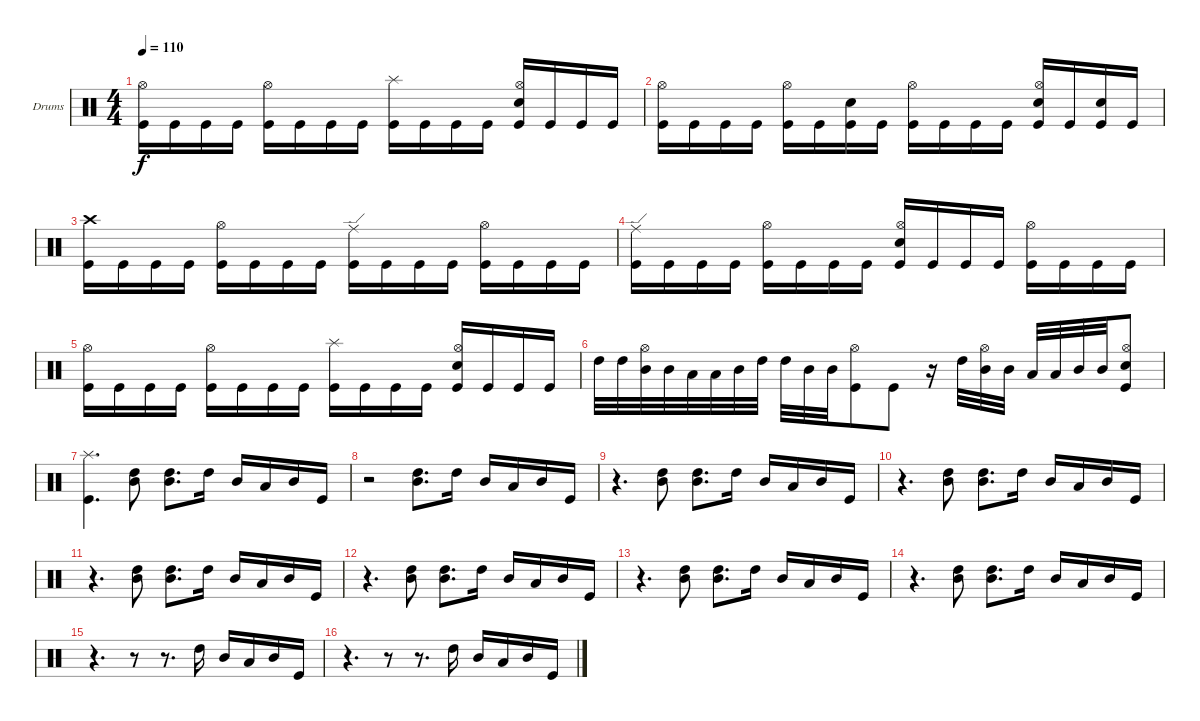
\bracketExtendMode groupsimilarinstruments
\firstSystemTrackNameOrientation horizontal
\otherSystemsTrackNameOrientation horizontal
\track ("Drumkit" "Drums") {instrument percussion}
\staff {score}
\articulation defaults
\ts (4 4)
\tempo 110
\clef neutral
\ks c
("Kick (hit)" "Hi-Hat (open)").16{dy f} "Kick (hit)".16 "Kick (hit)".16 "Kick (hit)".16 ("Kick (hit)" "Hi-Hat (open)").16 "Kick (hit)".16 "Kick (hit)".16 "Kick (hit)".16 ("Splash (hit)" "Kick (hit)").16 "Kick (hit)".16 "Kick (hit)".16 "Kick (hit)".16 ("Snare (hit) 2" "Kick (hit)" "Hi-Hat (open)").16 "Kick (hit)".16 "Kick (hit)".16 "Kick (hit)".16 |
("Kick (hit)" "Hi-Hat (open)").16 "Kick (hit)".16 "Kick (hit)".16 "Kick (hit)".16 ("Kick (hit)" "Hi-Hat (open)").16 "Kick (hit)".16 ("Snare (hit) 2" "Kick (hit)").16 "Kick (hit)".16 ("Kick (hit)" "Hi-Hat (open)").16 "Kick (hit)".16 "Kick (hit)".16 "Kick (hit)".16 ("Snare (hit) 2" "Kick (hit)" "Hi-Hat (open)").16 "Kick (hit)".16 ("Snare (hit) 2" "Kick (hit)").16 "Kick (hit)".16 |
("Crash high (hit)" "Kick (hit)").16 "Kick (hit)".16 "Kick (hit)".16 "Kick (hit)".16 ("Kick (hit)" "Hi-Hat (open)").16 "Kick (hit)".16 "Kick (hit)".16 "Kick (hit)".16 ("Ride (edge)" "Kick (hit)").16 "Kick (hit)".16 "Kick (hit)".16 "Kick (hit)".16 ("Kick (hit)" "Hi-Hat (open)").16 "Kick (hit)".16 "Kick (hit)".16 "Kick (hit)".16 |
("Ride (edge)" "Kick (hit)").16 "Kick (hit)".16 "Kick (hit)".16 "Kick (hit)".16 ("Kick (hit)" "Hi-Hat (open)").16 "Kick (hit)".16 "Kick (hit)".16 "Kick (hit)".16 ("Snare (hit) 2" "Kick (hit)" "Hi-Hat (open)").16 "Kick (hit)".16 "Kick (hit)".16 "Kick (hit)".16 ("Kick (hit)" "Hi-Hat (open)").16 "Kick (hit)".16 "Kick (hit)".16 "Kick (hit)".16 |
("Kick (hit)" "Hi-Hat (open)").16 "Kick (hit)".16 "Kick (hit)".16 "Kick (hit)".16 ("Kick (hit)" "Hi-Hat (open)").16 "Kick (hit)".16 "Kick (hit)".16 "Kick (hit)".16 ("Splash (hit)" "Kick (hit)").16 "Kick (hit)".16 "Kick (hit)".16 "Kick (hit)".16 ("Snare (hit) 2" "Kick (hit)" "Hi-Hat (open)").16 "Kick (hit)".16 "Kick (hit)".16 "Kick (hit)".16 |
"High Tom (hit)".32 "High Tom (hit)".32 ("Mid Tom (hit)" "Hi-Hat (open)").32 "Mid Tom (hit)".32 "Low Tom (hit)".32 "Low Tom (hit)".32 "Mid Tom (hit)".32 "High Tom (hit)".32 "High Tom (hit)".32 "Mid Tom (hit)".32 "Mid Tom (hit)".32 ("Kick (hit)" "Hi-Hat (open)").8 "Kick (hit)".8 r.16 "High Tom (hit)".32 ("Mid Tom (hit)" "Hi-Hat (open)").32 "Mid Tom (hit)".32 "Low Tom (hit)".32 "Low Tom (hit)".32 "Mid Tom (hit)".32 "Mid Tom (hit)".32 ("Snare (hit) 2" "Kick (hit)" "Hi-Hat (open)").8 |
("Splash (hit)" "Kick (hit)").4{d} ("High Tom (hit)" "Mid Tom (hit)").8 ("High Tom (hit)" "Mid Tom (hit)").8{d} "High Tom (hit)".16 "Mid Tom (hit)".16 "Low Tom (hit)".16 "Mid Tom (hit)".16 "Kick (hit)".16 |
r.2 ("High Tom (hit)" "Mid Tom (hit)").8{d} "High Tom (hit)".16 "Mid Tom (hit)".16 "Low Tom (hit)".16 "Mid Tom (hit)".16 "Kick (hit)".16 |
r.4{d} ("High Tom (hit)" "Mid Tom (hit)").8 ("High Tom (hit)" "Mid Tom (hit)").8{d} "High Tom (hit)".16 "Mid Tom (hit)".16 "Low Tom (hit)".16 "Mid Tom (hit)".16 "Kick (hit)".16 |
r.4{d} ("High Tom (hit)" "Mid Tom (hit)").8 ("High Tom (hit)" "Mid Tom (hit)").8{d} "High Tom (hit)".16 "Mid Tom (hit)".16 "Low Tom (hit)".16 "Mid Tom (hit)".16 "Kick (hit)".16 |
r.4{d} ("High Tom (hit)" "Mid Tom (hit)").8 ("High Tom (hit)" "Mid Tom (hit)").8{d} "High Tom (hit)".16 "Mid Tom (hit)".16 "Low Tom (hit)".16 "Mid Tom (hit)".16 "Kick (hit)".16 |
r.4{d} ("High Tom (hit)" "Mid Tom (hit)").8 ("High Tom (hit)" "Mid Tom (hit)").8{d} "High Tom (hit)".16 "Mid Tom (hit)".16 "Low Tom (hit)".16 "Mid Tom (hit)".16 "Kick (hit)".16 |
r.4{d} ("High Tom (hit)" "Mid Tom (hit)").8 ("High Tom (hit)" "Mid Tom (hit)").8{d} "High Tom (hit)".16 "Mid Tom (hit)".16 "Low Tom (hit)".16 "Mid Tom (hit)".16 "Kick (hit)".16 |
r.4{d} ("High Tom (hit)" "Mid Tom (hit)").8 ("High Tom (hit)" "Mid Tom (hit)").8{d} "High Tom (hit)".16 "Mid Tom (hit)".16 "Low Tom (hit)".16 "Mid Tom (hit)".16 "Kick (hit)".16 |
r.4{d} r.8 r.8{d} "High Tom (hit)".16 "Mid Tom (hit)".16 "Low Tom (hit)".16 "Mid Tom (hit)".16 "Kick (hit)".16 |
r.4{d} r.8 r.8{d} "High Tom (hit)".16 "Mid Tom (hit)".16 "Low Tom (hit)".16 "Mid Tom (hit)".16 "Kick (hit)".16
